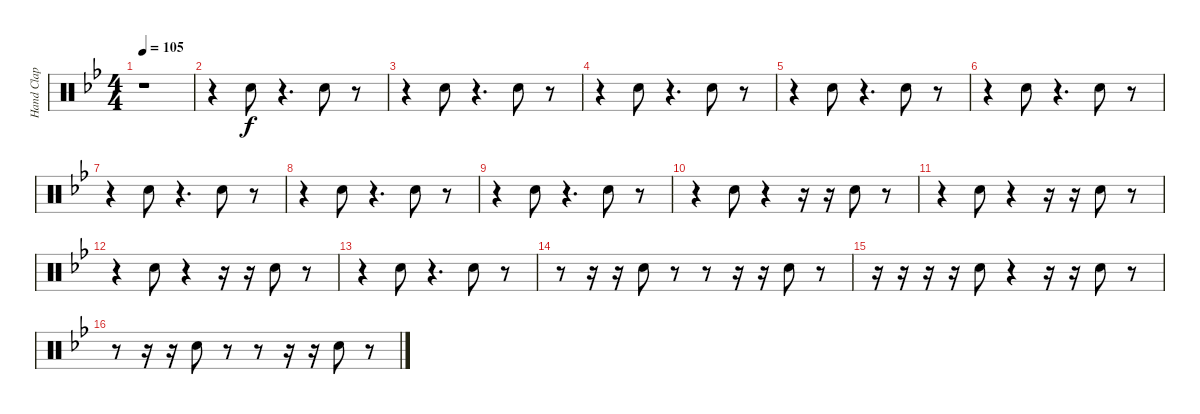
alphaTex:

\track ("Hand Clap" "Hand Clap") {instrument percussion}
\staff {score}
\articulation defaults
\ts (4 4)
\tempo 105
\clef neutral
\ks gminor
r.1{dy f} |
r.4 "Hand Clap (hit)".8 r.4{d} "Hand Clap (hit)".8 r.8 |
r.4 "Hand Clap (hit)".8 r.4{d} "Hand Clap (hit)".8 r.8 |
r.4 "Hand Clap (hit)".8 r.4{d} "Hand Clap (hit)".8 r.8 |
r.4 "Hand Clap (hit)".8 r.4{d} "Hand Clap (hit)".8 r.8 |
r.4 "Hand Clap (hit)".8 r.4{d} "Hand Clap (hit)".8 r.8 |
r.4 "Hand Clap (hit)".8 r.4{d} "Hand Clap (hit)".8 r.8 |
r.4 "Hand Clap (hit)".8 r.4{d} "Hand Clap (hit)".8 r.8 |
r.4 "Hand Clap (hit)".8 r.4{d} "Hand Clap (hit)".8 r.8 |
r.4 "Hand Clap (hit)".8 r.4 r.16 r.16 "Hand Clap (hit)".8 r.8 |
r.4 "Hand Clap (hit)".8 r.4 r.16 r.16 "Hand Clap (hit)".8 r.8 |
r.4 "Hand Clap (hit)".8 r.4 r.16 r.16 "Hand Clap (hit)".8 r.8 |
r.4 "Hand Clap (hit)".8 r.4{d} "Hand Clap (hit)".8 r.8 |
r.8 r.16 r.16 "Hand Clap (hit)".8 r.8 r.8 r.16 r.16 "Hand Clap (hit)".8 r.8 |
r.16 r.16 r.16 r.16 "Hand Clap (hit)".8 r.4 r.16 r.16 "Hand Clap (hit)".8 r.8 |
r.8 r.16 r.16 "Hand Clap (hit)".8 r.8 r.8 r.16 r.16 "Hand Clap (hit)".8 r.8
